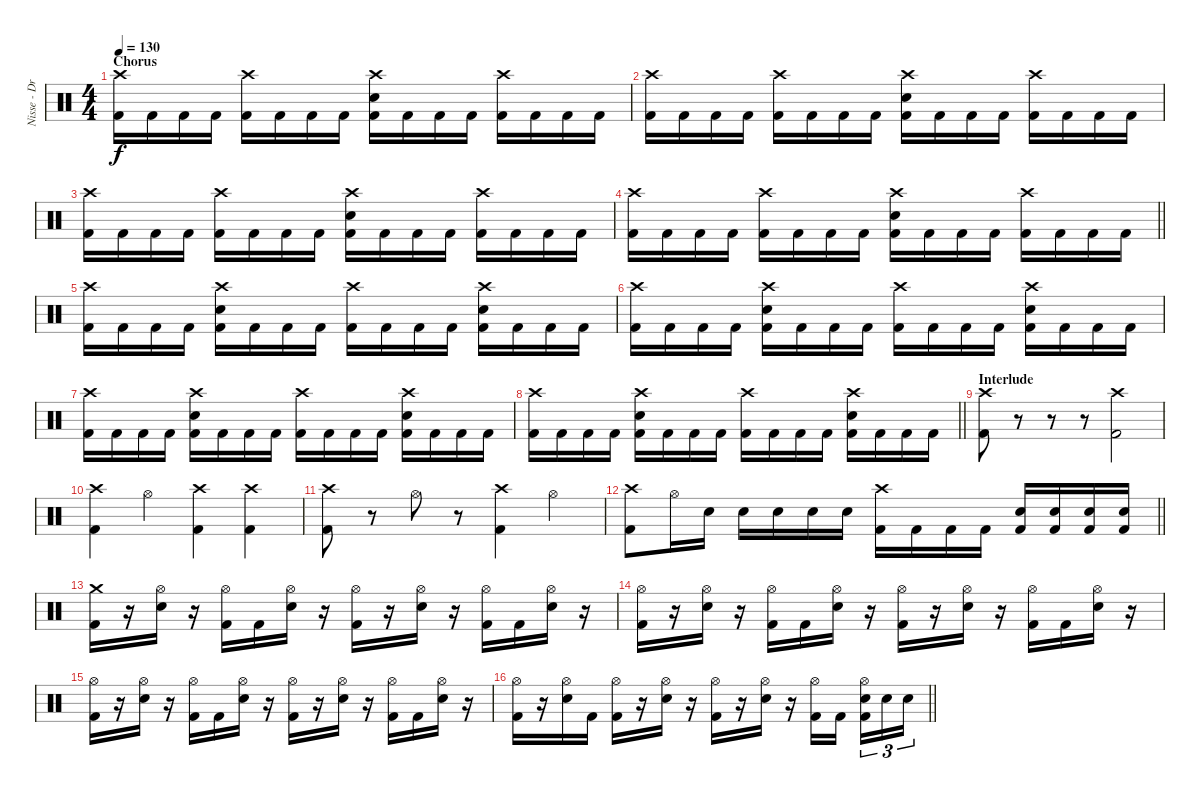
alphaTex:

\track ("Nisse - Drums" "Nisse - Dr") {instrument percussion}
\staff {score}
\articulation defaults
\ts (4 4)
\section ("" "Chorus")
\tempo 130
\clef neutral
\ks c
("Crash high (hit)" "Kick (hit) 2").16{dy f} "Kick (hit) 2".16 "Kick (hit) 2".16 "Kick (hit) 2".16 ("Crash high (hit)" "Kick (hit) 2").16 "Kick (hit) 2".16 "Kick (hit) 2".16 "Kick (hit) 2".16 ("Crash high (hit)" "Electric Snare (hit)" "Kick (hit) 2").16 "Kick (hit) 2".16 "Kick (hit) 2".16 "Kick (hit) 2".16 ("Crash high (hit)" "Kick (hit) 2").16 "Kick (hit) 2".16 "Kick (hit) 2".16 "Kick (hit) 2".16 |
("Crash high (hit)" "Kick (hit) 2").16 "Kick (hit) 2".16 "Kick (hit) 2".16 "Kick (hit) 2".16 ("Crash high (hit)" "Kick (hit) 2").16 "Kick (hit) 2".16 "Kick (hit) 2".16 "Kick (hit) 2".16 ("Crash high (hit)" "Electric Snare (hit)" "Kick (hit) 2").16 "Kick (hit) 2".16 "Kick (hit) 2".16 "Kick (hit) 2".16 ("Crash high (hit)" "Kick (hit) 2").16 "Kick (hit) 2".16 "Kick (hit) 2".16 "Kick (hit) 2".16 |
("Crash high (hit)" "Kick (hit) 2").16 "Kick (hit) 2".16 "Kick (hit) 2".16 "Kick (hit) 2".16 ("Crash high (hit)" "Kick (hit) 2").16 "Kick (hit) 2".16 "Kick (hit) 2".16 "Kick (hit) 2".16 ("Crash high (hit)" "Electric Snare (hit)" "Kick (hit) 2").16 "Kick (hit) 2".16 "Kick (hit) 2".16 "Kick (hit) 2".16 ("Crash high (hit)" "Kick (hit) 2").16 "Kick (hit) 2".16 "Kick (hit) 2".16 "Kick (hit) 2".16 |
\barLineRight lightlight
("Crash high (hit)" "Kick (hit) 2").16 "Kick (hit) 2".16 "Kick (hit) 2".16 "Kick (hit) 2".16 ("Crash high (hit)" "Kick (hit) 2").16 "Kick (hit) 2".16 "Kick (hit) 2".16 "Kick (hit) 2".16 ("Crash high (hit)" "Electric Snare (hit)" "Kick (hit) 2").16 "Kick (hit) 2".16 "Kick (hit) 2".16 "Kick (hit) 2".16 ("Crash high (hit)" "Kick (hit) 2").16 "Kick (hit) 2".16 "Kick (hit) 2".16 "Kick (hit) 2".16 |
("Crash high (hit)" "Kick (hit) 2").16 "Kick (hit) 2".16 "Kick (hit) 2".16 "Kick (hit) 2".16 ("Crash high (hit)" "Electric Snare (hit)" "Kick (hit) 2").16 "Kick (hit) 2".16 "Kick (hit) 2".16 "Kick (hit) 2".16 ("Crash high (hit)" "Kick (hit) 2").16 "Kick (hit) 2".16 "Kick (hit) 2".16 "Kick (hit) 2".16 ("Crash high (hit)" "Electric Snare (hit)" "Kick (hit) 2").16 "Kick (hit) 2".16 "Kick (hit) 2".16 "Kick (hit) 2".16 |
("Crash high (hit)" "Kick (hit) 2").16 "Kick (hit) 2".16 "Kick (hit) 2".16 "Kick (hit) 2".16 ("Crash high (hit)" "Electric Snare (hit)" "Kick (hit) 2").16 "Kick (hit) 2".16 "Kick (hit) 2".16 "Kick (hit) 2".16 ("Crash high (hit)" "Kick (hit) 2").16 "Kick (hit) 2".16 "Kick (hit) 2".16 "Kick (hit) 2".16 ("Crash high (hit)" "Electric Snare (hit)" "Kick (hit) 2").16 "Kick (hit) 2".16 "Kick (hit) 2".16 "Kick (hit) 2".16 |
("Crash high (hit)" "Kick (hit) 2").16 "Kick (hit) 2".16 "Kick (hit) 2".16 "Kick (hit) 2".16 ("Crash high (hit)" "Electric Snare (hit)" "Kick (hit) 2").16 "Kick (hit) 2".16 "Kick (hit) 2".16 "Kick (hit) 2".16 ("Crash high (hit)" "Kick (hit) 2").16 "Kick (hit) 2".16 "Kick (hit) 2".16 "Kick (hit) 2".16 ("Crash high (hit)" "Electric Snare (hit)" "Kick (hit) 2").16 "Kick (hit) 2".16 "Kick (hit) 2".16 "Kick (hit) 2".16 |
\barLineRight lightlight
("Crash high (hit)" "Kick (hit) 2").16 "Kick (hit) 2".16 "Kick (hit) 2".16 "Kick (hit) 2".16 ("Crash high (hit)" "Electric Snare (hit)" "Kick (hit) 2").16 "Kick (hit) 2".16 "Kick (hit) 2".16 "Kick (hit) 2".16 ("Crash high (hit)" "Kick (hit) 2").16 "Kick (hit) 2".16 "Kick (hit) 2".16 "Kick (hit) 2".16 ("Crash high (hit)" "Electric Snare (hit)" "Kick (hit) 2").16 "Kick (hit) 2".16 "Kick (hit) 2".16 "Kick (hit) 2".16 |
\section ("" "Interlude")
("Crash high (hit)" "Kick (hit) 2").8 r.8 r.8 r.8 ("Crash high (hit)" "Kick (hit) 2").2 |
("Crash high (hit)" "Kick (hit) 2").4 "Hi-Hat (open)".4 ("Crash high (hit)" "Kick (hit) 2").4 ("Crash high (hit)" "Kick (hit) 2").4 |
("Crash high (hit)" "Kick (hit) 2").8 r.8 "Hi-Hat (open)".8 r.8 ("Crash high (hit)" "Kick (hit) 2").4 "Hi-Hat (open)".4 |
\barLineRight lightlight
("Crash high (hit)" "Kick (hit) 2").8 "Hi-Hat (open)".16 "Electric Snare (hit)".16 "Electric Snare (hit)".16 "Electric Snare (hit)".16 "Electric Snare (hit)".16 "Electric Snare (hit)".16 ("Crash high (hit)" "Kick (hit) 2").16 "Kick (hit) 2".16 "Kick (hit) 2".16 "Kick (hit) 2".16 ("Electric Snare (hit)" "Kick (hit) 2").16 ("Electric Snare (hit)" "Kick (hit) 2").16 ("Electric Snare (hit)" "Kick (hit) 2").16 ("Electric Snare (hit)" "Kick (hit) 2").16 |
\section ("" "")
("Crash medium (hit)" "Kick (hit) 2").16 r.16 ("Hi-Hat (open)" "Electric Snare (hit)").16 r.16 ("Hi-Hat (open)" "Kick (hit) 2").16 "Kick (hit) 2".16 ("Hi-Hat (open)" "Electric Snare (hit)").16 r.16 ("Hi-Hat (open)" "Kick (hit) 2").16 r.16 ("Hi-Hat (open)" "Electric Snare (hit)").16 r.16 ("Hi-Hat (open)" "Kick (hit) 2").16 "Kick (hit) 2".16 ("Hi-Hat (open)" "Electric Snare (hit)").16 r.16 |
("Hi-Hat (open)" "Kick (hit) 2").16 r.16 ("Hi-Hat (open)" "Electric Snare (hit)").16 r.16 ("Hi-Hat (open)" "Kick (hit) 2").16 "Kick (hit) 2".16 ("Hi-Hat (open)" "Electric Snare (hit)").16 r.16 ("Hi-Hat (open)" "Kick (hit) 2").16 r.16 ("Hi-Hat (open)" "Electric Snare (hit)").16 r.16 ("Hi-Hat (open)" "Kick (hit) 2").16 "Kick (hit) 2".16 ("Hi-Hat (open)" "Electric Snare (hit)").16 r.16 |
("Hi-Hat (open)" "Kick (hit) 2").16 r.16 ("Hi-Hat (open)" "Electric Snare (hit)").16 r.16 ("Hi-Hat (open)" "Kick (hit) 2").16 "Kick (hit) 2".16 ("Hi-Hat (open)" "Electric Snare (hit)").16 r.16 ("Hi-Hat (open)" "Kick (hit) 2").16 r.16 ("Hi-Hat (open)" "Electric Snare (hit)").16 r.16 ("Hi-Hat (open)" "Kick (hit) 2").16 "Kick (hit) 2".16 ("Hi-Hat (open)" "Electric Snare (hit)").16 r.16 |
\barLineRight lightlight
("Hi-Hat (open)" "Kick (hit) 2").16 r.16 ("Hi-Hat (open)" "Electric Snare (hit)").16 "Kick (hit) 2".16 ("Hi-Hat (open)" "Kick (hit) 2").16 r.16 ("Hi-Hat (open)" "Electric Snare (hit)").16 r.16 ("Hi-Hat (open)" "Kick (hit) 2").16 r.16 ("Hi-Hat (open)" "Electric Snare (hit)").16 r.16 ("Hi-Hat (open)" "Kick (hit) 2").16 "Kick (hit) 2".16{beam splitsecondary} ("Hi-Hat (open)" "Electric Snare (hit)" "Kick (hit) 2").16{tu (3 2)} "Electric Snare (hit)".16{tu (3 2)} "Electric Snare (hit)".16{tu (3 2)}
